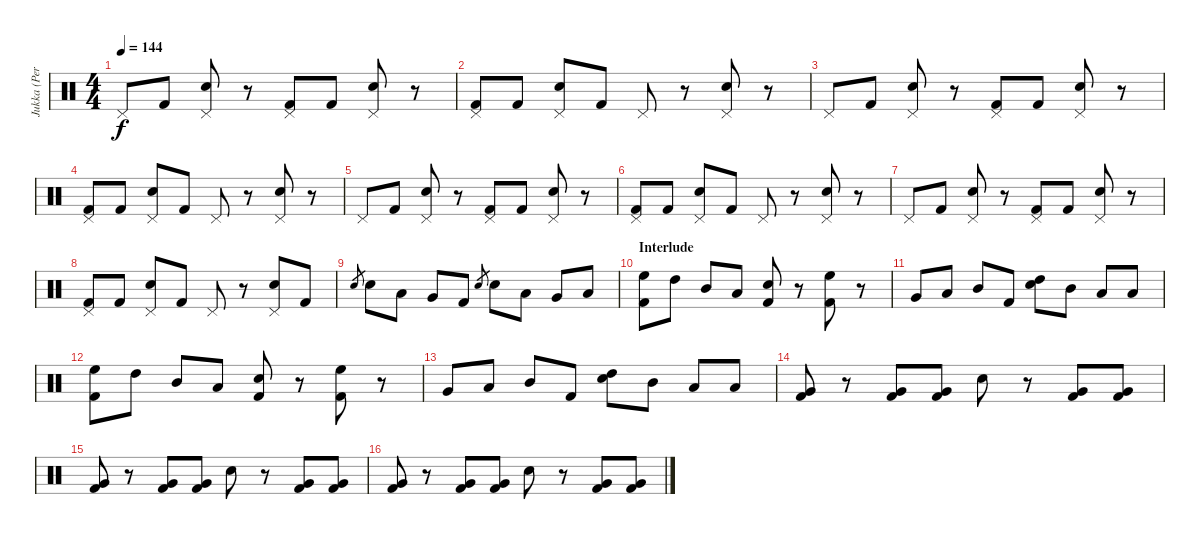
\track ("Jukka (Percussion)" "Jukka (Per") {instrument percussion}
\staff {score}
\articulation defaults
\ts (4 4)
\tempo 144
\clef neutral
\ks c "Pedal Hi-Hat (hit)".8{dy f} "Kick (hit) 2".8
("Pedal Hi-Hat (hit)" "Electric Snare (hit)").8 r.8 ("Pedal Hi-Hat (hit)" "Kick (hit) 2").8 "Kick (hit) 2".8 ("Pedal Hi-Hat (hit)" "Electric Snare (hit)").8 r.8 |
("Pedal Hi-Hat (hit)" "Kick (hit) 2").8 "Kick (hit) 2".8 ("Pedal Hi-Hat (hit)" "Electric Snare (hit)").8 "Kick (hit) 2".8 "Pedal Hi-Hat (hit)".8 r.8 ("Pedal Hi-Hat (hit)" "Electric Snare (hit)").8 r.8 |
"Pedal Hi-Hat (hit)".8 "Kick (hit) 2".8 ("Pedal Hi-Hat (hit)" "Electric Snare (hit)").8 r.8 ("Pedal Hi-Hat (hit)" "Kick (hit) 2").8 "Kick (hit) 2".8 ("Pedal Hi-Hat (hit)" "Electric Snare (hit)").8 r.8 |
("Pedal Hi-Hat (hit)" "Kick (hit) 2").8 "Kick (hit) 2".8 ("Pedal Hi-Hat (hit)" "Electric Snare (hit)").8 "Kick (hit) 2".8 "Pedal Hi-Hat (hit)".8 r.8 ("Pedal Hi-Hat (hit)" "Electric Snare (hit)").8 r.8 |
"Pedal Hi-Hat (hit)".8 "Kick (hit) 2".8 ("Pedal Hi-Hat (hit)" "Electric Snare (hit)").8 r.8 ("Pedal Hi-Hat (hit)" "Kick (hit) 2").8 "Kick (hit) 2".8 ("Pedal Hi-Hat (hit)" "Electric Snare (hit)").8 r.8 |
("Pedal Hi-Hat (hit)" "Kick (hit) 2").8 "Kick (hit) 2".8 ("Pedal Hi-Hat (hit)" "Electric Snare (hit)").8 "Kick (hit) 2".8 "Pedal Hi-Hat (hit)".8 r.8 ("Pedal Hi-Hat (hit)" "Electric Snare (hit)").8 r.8 |
"Pedal Hi-Hat (hit)".8 "Kick (hit) 2".8 ("Pedal Hi-Hat (hit)" "Electric Snare (hit)").8 r.8 ("Pedal Hi-Hat (hit)" "Kick (hit) 2").8 "Kick (hit) 2".8 ("Pedal Hi-Hat (hit)" "Electric Snare (hit)").8 r.8 |
("Pedal Hi-Hat (hit)" "Kick (hit) 2").8 "Kick (hit) 2".8 ("Pedal Hi-Hat (hit)" "Electric Snare (hit)").8 "Kick (hit) 2".8 "Pedal Hi-Hat (hit)".8 r.8 ("Pedal Hi-Hat (hit)" "Electric Snare (hit)").8 "Kick (hit) 2".8 |
"Electric Snare (hit)".8{gr} "Electric Snare (hit)".8 "Low Tom (hit)".8 "Very Low Tom (hit)".8 "Kick (hit) 2".8 "Electric Snare (hit)".8{gr} "Electric Snare (hit)".8 "Low Tom (hit)".8 "Very Low Tom (hit)".8 "Low Floor Tom (hit)".8 |
\section ("" "Interlude")
("High Floor Tom (hit)" "Kick (hit) 2").8 "High Tom (hit)".8 "Mid Tom (hit)".8 "Low Tom (hit)".8 ("Electric Snare (hit)" "Kick (hit) 2").8 r.8 ("High Floor Tom (hit)" "Kick (hit) 2").8 r.8 |
"Very Low Tom (hit)".8 "Low Tom (hit)".8 "Mid Tom (hit)".8 "Kick (hit) 2".8 ("High Tom (hit)" "Electric Snare (hit)").8 "Mid Tom (hit)".8 "Low Tom (hit)".8 "Low Floor Tom (hit)".8 |
("High Floor Tom (hit)" "Kick (hit) 2").8 "High Tom (hit)".8 "Mid Tom (hit)".8 "Low Tom (hit)".8 ("Electric Snare (hit)" "Kick (hit) 2").8 r.8 ("High Floor Tom (hit)" "Kick (hit) 2").8 r.8 |
"Very Low Tom (hit)".8 "Low Tom (hit)".8 "Mid Tom (hit)".8 "Kick (hit) 2".8 ("High Tom (hit)" "Electric Snare (hit)").8 "Mid Tom (hit)".8 "Low Tom (hit)".8 "Low Floor Tom (hit)".8 |
("Very Low Tom (hit)" "Kick (hit) 2").8 r.8 ("Very Low Tom (hit)" "Kick (hit) 2").8 ("Very Low Tom (hit)" "Kick (hit) 2").8 "Electric Snare (hit)".8 r.8 ("Very Low Tom (hit)" "Kick (hit) 2").8 ("Very Low Tom (hit)" "Kick (hit) 2").8 |
("Very Low Tom (hit)" "Kick (hit) 2").8 r.8 ("Very Low Tom (hit)" "Kick (hit) 2").8 ("Very Low Tom (hit)" "Kick (hit) 2").8 "Electric Snare (hit)".8 r.8 ("Very Low Tom (hit)" "Kick (hit) 2").8 ("Very Low Tom (hit)" "Kick (hit) 2").8 |
("Very Low Tom (hit)" "Kick (hit) 2").8 r.8 ("Very Low Tom (hit)" "Kick (hit) 2").8 ("Very Low Tom (hit)" "Kick (hit) 2").8 "Electric Snare (hit)".8 r.8 ("Very Low Tom (hit)" "Kick (hit) 2").8 ("Very Low Tom (hit)" "Kick (hit) 2").8
